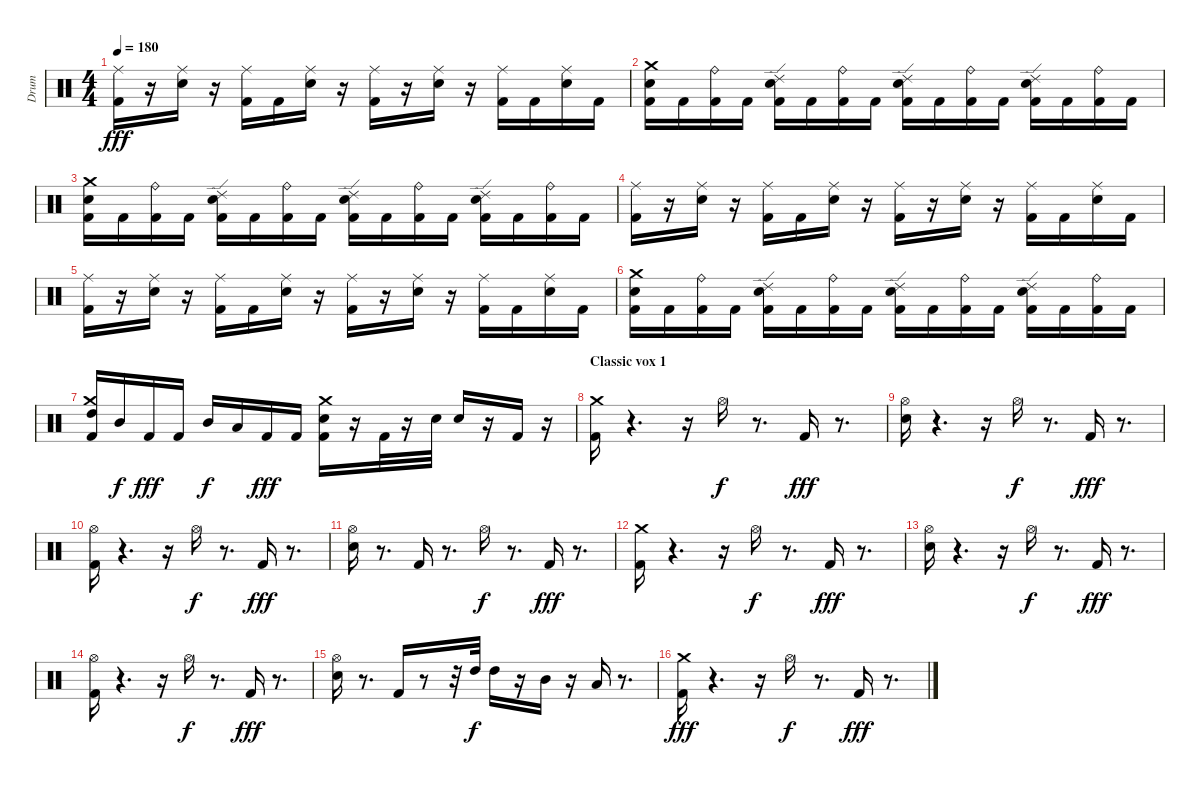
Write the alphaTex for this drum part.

\track ("Drum" "Drum") {instrument percussion}
\staff {score}
\articulation defaults
\ts (4 4)
\tempo 180
\clef neutral
\ks c
("Kick (hit) 2" "Ride (middle)").16{dy fff} r.16 ("Electric Snare (hit)" "Ride (middle)").16 r.16 ("Kick (hit) 2" "Ride (middle)").16 "Kick (hit) 2".16 ("Electric Snare (hit)" "Ride (middle)").16 r.16 ("Kick (hit) 2" "Ride (middle)").16 r.16 ("Electric Snare (hit)" "Ride (middle)").16 r.16 ("Kick (hit) 2" "Ride (middle)").16 "Kick (hit) 2".16 ("Electric Snare (hit)" "Ride (middle)").16 "Kick (hit) 2".16 |
("Electric Snare (hit)" "Kick (hit) 2" "Crash medium (hit)").16 "Kick (hit) 2".16 ("Kick (hit) 2" "Ride (bell)").16 "Kick (hit) 2".16 ("Electric Snare (hit)" "Kick (hit) 2" "Ride (edge) 2").16 "Kick (hit) 2".16 ("Kick (hit) 2" "Ride (bell)").16 "Kick (hit) 2".16 ("Kick (hit) 2" "Electric Snare (hit)" "Ride (edge) 2").16 "Kick (hit) 2".16 ("Kick (hit) 2" "Ride (bell)").16 "Kick (hit) 2".16 ("Kick (hit) 2" "Electric Snare (hit)" "Ride (edge) 2").16 "Kick (hit) 2".16 ("Kick (hit) 2" "Ride (bell)").16 "Kick (hit) 2".16 |
("Electric Snare (hit)" "Kick (hit) 2" "Crash medium (hit)").16 "Kick (hit) 2".16 ("Kick (hit) 2" "Ride (bell)").16 "Kick (hit) 2".16 ("Kick (hit) 2" "Electric Snare (hit)" "Ride (edge) 2").16 "Kick (hit) 2".16 ("Kick (hit) 2" "Ride (bell)").16 "Kick (hit) 2".16 ("Kick (hit) 2" "Electric Snare (hit)" "Ride (edge) 2").16 "Kick (hit) 2".16 ("Kick (hit) 2" "Ride (bell)").16 "Kick (hit) 2".16 ("Kick (hit) 2" "Electric Snare (hit)" "Ride (edge) 2").16 "Kick (hit) 2".16 ("Kick (hit) 2" "Ride (bell)").16 "Kick (hit) 2".16 |
("Kick (hit) 2" "Ride (middle)").16 r.16 ("Electric Snare (hit)" "Ride (middle)").16 r.16 ("Kick (hit) 2" "Ride (middle)").16 "Kick (hit) 2".16 ("Electric Snare (hit)" "Ride (middle)").16 r.16 ("Kick (hit) 2" "Ride (middle)").16 r.16 ("Electric Snare (hit)" "Ride (middle)").16 r.16 ("Kick (hit) 2" "Ride (middle)").16 "Kick (hit) 2".16 ("Electric Snare (hit)" "Ride (middle)").16 "Kick (hit) 2".16 |
("Kick (hit) 2" "Ride (middle)").16 r.16 ("Electric Snare (hit)" "Ride (middle)").16 r.16 ("Kick (hit) 2" "Ride (middle)").16 "Kick (hit) 2".16 ("Electric Snare (hit)" "Ride (middle)").16 r.16 ("Kick (hit) 2" "Ride (middle)").16 r.16 ("Electric Snare (hit)" "Ride (middle)").16 r.16 ("Kick (hit) 2" "Ride (middle)").16 "Kick (hit) 2".16 ("Electric Snare (hit)" "Ride (middle)").16 "Kick (hit) 2".16 |
("Electric Snare (hit)" "Kick (hit) 2" "Crash medium (hit)").16 "Kick (hit) 2".16 ("Kick (hit) 2" "Ride (bell)").16 "Kick (hit) 2".16 ("Electric Snare (hit)" "Kick (hit) 2" "Ride (edge) 2").16 "Kick (hit) 2".16 ("Kick (hit) 2" "Ride (bell)").16 "Kick (hit) 2".16 ("Electric Snare (hit)" "Kick (hit) 2" "Ride (edge) 2").16 "Kick (hit) 2".16 ("Kick (hit) 2" "Ride (bell)").16 "Kick (hit) 2".16 ("Electric Snare (hit)" "Kick (hit) 2" "Ride (edge) 2").16 "Kick (hit) 2".16 ("Kick (hit) 2" "Ride (bell)").16 "Kick (hit) 2".16 |
("Kick (hit) 2" "Crash medium (hit)" "High Tom (hit)").16 "Mid Tom (hit)".16{dy f} "Kick (hit) 2".16{dy fff} "Kick (hit) 2".16 "Mid Tom (hit)".16{dy f} "Low Tom (hit)".16 "Kick (hit) 2".16{dy fff} "Kick (hit) 2".16 ("Electric Snare (hit)" "Kick (hit) 2" "Crash medium (hit)").16 r.16 "Kick (hit) 2".32 r.16 "Electric Snare (hit)".32 "Electric Snare (hit)".16 r.16 "Kick (hit) 2".16 r.16 |
\section ("" "Classic vox 1")
("Kick (hit) 2" "Crash medium (hit)").16 r.4{d} r.16 "Hi-Hat (open)".16{dy f} r.8{d} "Kick (hit) 2".16{dy fff} r.8{d} |
("Electric Snare (hit)" "Hi-Hat (open)").16 r.4{d} r.16 "Hi-Hat (open)".16{dy f} r.8{d} "Kick (hit) 2".16{dy fff} r.8{d} |
("Kick (hit) 2" "Hi-Hat (open)").16 r.4{d} r.16 "Hi-Hat (open)".16{dy f} r.8{d} "Kick (hit) 2".16{dy fff} r.8{d} |
("Electric Snare (hit)" "Hi-Hat (open)").16 r.8{d} "Kick (hit) 2".16 r.8{d} "Hi-Hat (open)".16{dy f} r.8{d} "Kick (hit) 2".16{dy fff} r.8{d} |
("Kick (hit) 2" "Crash medium (hit)").16 r.4{d} r.16 "Hi-Hat (open)".16{dy f} r.8{d} "Kick (hit) 2".16{dy fff} r.8{d} |
("Electric Snare (hit)" "Hi-Hat (open)").16 r.4{d} r.16 "Hi-Hat (open)".16{dy f} r.8{d} "Kick (hit) 2".16{dy fff} r.8{d} |
("Kick (hit) 2" "Hi-Hat (open)").16 r.4{d} r.16 "Hi-Hat (open)".16{dy f} r.8{d} "Kick (hit) 2".16{dy fff} r.8{d} |
("Electric Snare (hit)" "Hi-Hat (open)").16 r.8{d} "Kick (hit) 2".16 r.8 r.32 "High Tom (hit)".32{dy f} "High Tom (hit)".16 r.16 "Mid Tom (hit)".16 r.16 "Low Tom (hit)".16 r.8{d} |
("Kick (hit) 2" "Crash medium (hit)").16{dy fff} r.4{d} r.16 "Hi-Hat (open)".16{dy f} r.8{d} "Kick (hit) 2".16{dy fff} r.8{d}
